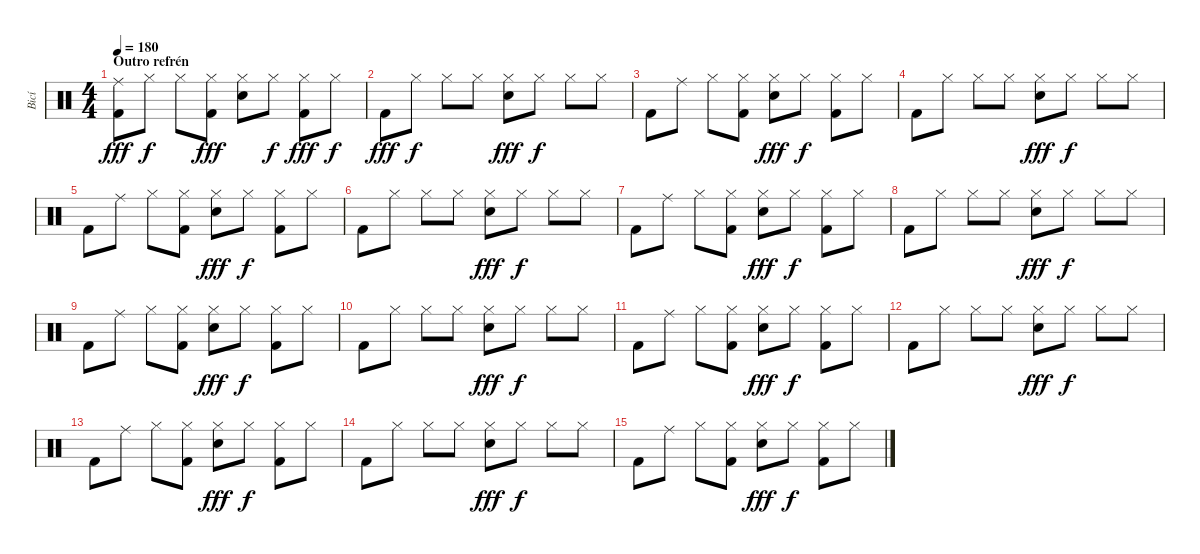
\track ("Bicí" "Bicí") {instrument percussion}
\staff {score}
\articulation defaults
\ts (4 4)
\section ("" "Outro refrén")
\tempo 180
\clef neutral
\ks c
("Kick (hit) 2" "Ride (middle)").8{dy fff} "Hi-Hat (closed)".8{dy f} "Hi-Hat (closed)".8 ("Kick (hit) 2" "Hi-Hat (closed)").8{dy fff} ("Hand Clap (hit)" "Hi-Hat (closed)").8 "Hi-Hat (closed)".8{dy f} ("Kick (hit) 2" "Hi-Hat (closed)").8{dy fff} "Hi-Hat (closed)".8{dy f} |
"Kick (hit) 2".8{dy fff} "Hi-Hat (closed)".8{dy f} "Hi-Hat (closed)".8 "Hi-Hat (closed)".8 ("Hand Clap (hit)" "Hi-Hat (closed)").8{dy fff} "Hi-Hat (closed)".8{dy f} "Hi-Hat (closed)".8 "Hi-Hat (closed)".8 |
"Kick (hit) 2".8 "Ride (middle)".8 "Hi-Hat (closed)".8 ("Kick (hit) 2" "Hi-Hat (closed)").8 ("Hand Clap (hit)" "Hi-Hat (closed)").8{dy fff} "Hi-Hat (closed)".8{dy f} ("Kick (hit) 2" "Hi-Hat (closed)").8 "Hi-Hat (closed)".8 |
"Kick (hit) 2".8 "Hi-Hat (closed)".8 "Hi-Hat (closed)".8 "Hi-Hat (closed)".8 ("Hand Clap (hit)" "Hi-Hat (closed)").8{dy fff} "Hi-Hat (closed)".8{dy f} "Hi-Hat (closed)".8 "Hi-Hat (closed)".8 |
"Kick (hit) 2".8 "Ride (middle)".8 "Hi-Hat (closed)".8 ("Kick (hit) 2" "Hi-Hat (closed)").8 ("Hand Clap (hit)" "Hi-Hat (closed)").8{dy fff} "Hi-Hat (closed)".8{dy f} ("Kick (hit) 2" "Hi-Hat (closed)").8 "Hi-Hat (closed)".8 |
"Kick (hit) 2".8 "Hi-Hat (closed)".8 "Hi-Hat (closed)".8 "Hi-Hat (closed)".8 ("Hand Clap (hit)" "Hi-Hat (closed)").8{dy fff} "Hi-Hat (closed)".8{dy f} "Hi-Hat (closed)".8 "Hi-Hat (closed)".8 |
"Kick (hit) 2".8 "Ride (middle)".8 "Hi-Hat (closed)".8 ("Kick (hit) 2" "Hi-Hat (closed)").8 ("Hand Clap (hit)" "Hi-Hat (closed)").8{dy fff} "Hi-Hat (closed)".8{dy f} ("Kick (hit) 2" "Hi-Hat (closed)").8 "Hi-Hat (closed)".8 |
"Kick (hit) 2".8 "Hi-Hat (closed)".8 "Hi-Hat (closed)".8 "Hi-Hat (closed)".8 ("Hand Clap (hit)" "Hi-Hat (closed)").8{dy fff} "Hi-Hat (closed)".8{dy f} "Hi-Hat (closed)".8 "Hi-Hat (closed)".8 |
"Kick (hit) 2".8 "Ride (middle)".8 "Hi-Hat (closed)".8 ("Kick (hit) 2" "Hi-Hat (closed)").8 ("Hand Clap (hit)" "Hi-Hat (closed)").8{dy fff} "Hi-Hat (closed)".8{dy f} ("Kick (hit) 2" "Hi-Hat (closed)").8 "Hi-Hat (closed)".8 |
"Kick (hit) 2".8 "Hi-Hat (closed)".8 "Hi-Hat (closed)".8 "Hi-Hat (closed)".8 ("Hand Clap (hit)" "Hi-Hat (closed)").8{dy fff} "Hi-Hat (closed)".8{dy f} "Hi-Hat (closed)".8 "Hi-Hat (closed)".8 |
"Kick (hit) 2".8 "Ride (middle)".8 "Hi-Hat (closed)".8 ("Kick (hit) 2" "Hi-Hat (closed)").8 ("Hand Clap (hit)" "Hi-Hat (closed)").8{dy fff} "Hi-Hat (closed)".8{dy f} ("Kick (hit) 2" "Hi-Hat (closed)").8 "Hi-Hat (closed)".8 |
"Kick (hit) 2".8 "Hi-Hat (closed)".8 "Hi-Hat (closed)".8 "Hi-Hat (closed)".8 ("Hand Clap (hit)" "Hi-Hat (closed)").8{dy fff} "Hi-Hat (closed)".8{dy f} "Hi-Hat (closed)".8 "Hi-Hat (closed)".8 |
"Kick (hit) 2".8 "Ride (middle)".8 "Hi-Hat (closed)".8 ("Kick (hit) 2" "Hi-Hat (closed)").8 ("Hand Clap (hit)" "Hi-Hat (closed)").8{dy fff} "Hi-Hat (closed)".8{dy f} ("Kick (hit) 2" "Hi-Hat (closed)").8 "Hi-Hat (closed)".8 |
"Kick (hit) 2".8 "Hi-Hat (closed)".8 "Hi-Hat (closed)".8 "Hi-Hat (closed)".8 ("Hand Clap (hit)" "Hi-Hat (closed)").8{dy fff} "Hi-Hat (closed)".8{dy f} "Hi-Hat (closed)".8 "Hi-Hat (closed)".8 |
"Kick (hit) 2".8 "Ride (middle)".8 "Hi-Hat (closed)".8 ("Kick (hit) 2" "Hi-Hat (closed)").8 ("Hand Clap (hit)" "Hi-Hat (closed)").8{dy fff} "Hi-Hat (closed)".8{dy f} ("Kick (hit) 2" "Hi-Hat (closed)").8 "Hi-Hat (closed)".8
